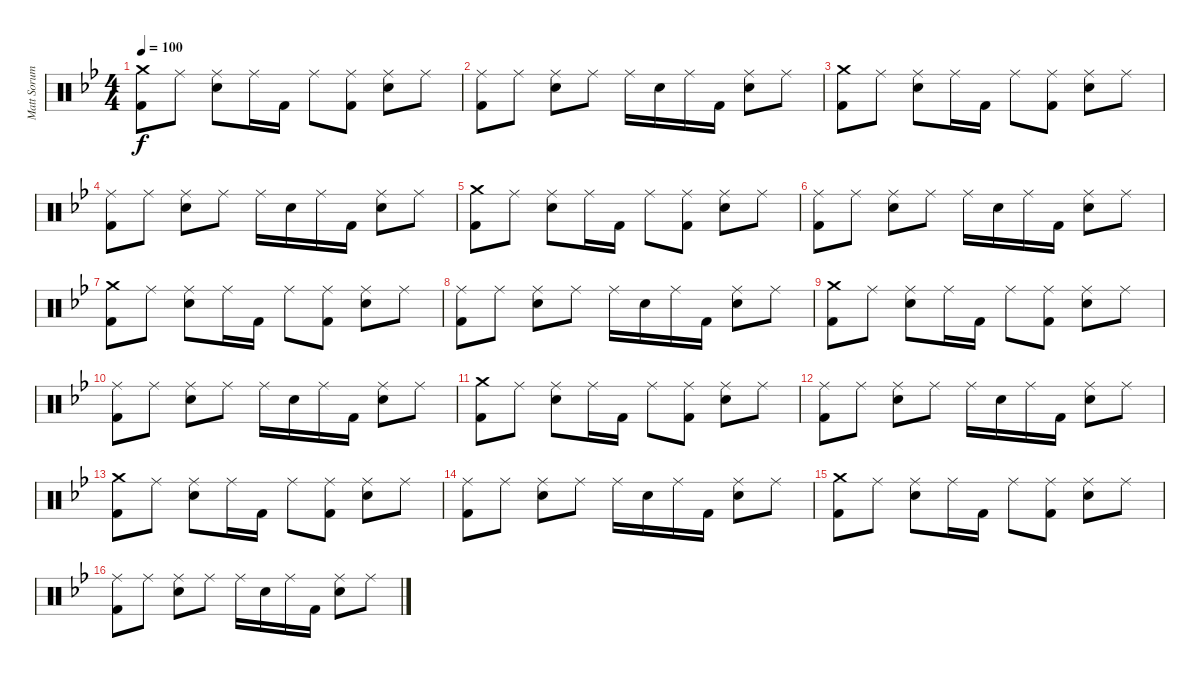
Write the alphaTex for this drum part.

\track ("Matt Sorum" "Matt Sorum") {instrument percussion}
\staff {score}
\articulation defaults
\ts (4 4)
\tempo 100
\clef neutral
\ks bb
("Crash medium (hit)" "Kick (hit) 2").8{dy f} "Ride (middle)".8 ("Ride (middle)" "Electric Snare (hit)").8 "Ride (middle)".16 "Kick (hit) 2".16 "Ride (middle)".8 ("Ride (middle)" "Kick (hit) 2").8 ("Ride (middle)" "Electric Snare (hit)").8 "Ride (middle)".8 |
("Ride (middle)" "Kick (hit) 2").8 "Ride (middle)".8 ("Ride (middle)" "Electric Snare (hit)").8 "Ride (middle)".8 "Ride (middle)".16 "Electric Snare (hit)".16 "Ride (middle)".16 "Kick (hit) 2".16 ("Ride (middle)" "Electric Snare (hit)").8 "Ride (middle)".8 |
("Crash medium (hit)" "Kick (hit) 2").8 "Ride (middle)".8 ("Ride (middle)" "Electric Snare (hit)").8 "Ride (middle)".16 "Kick (hit) 2".16 "Ride (middle)".8 ("Ride (middle)" "Kick (hit) 2").8 ("Ride (middle)" "Electric Snare (hit)").8 "Ride (middle)".8 |
("Ride (middle)" "Kick (hit) 2").8 "Ride (middle)".8 ("Ride (middle)" "Electric Snare (hit)").8 "Ride (middle)".8 "Ride (middle)".16 "Electric Snare (hit)".16 "Ride (middle)".16 "Kick (hit) 2".16 ("Ride (middle)" "Electric Snare (hit)").8 "Ride (middle)".8 |
("Crash medium (hit)" "Kick (hit) 2").8 "Ride (middle)".8 ("Ride (middle)" "Electric Snare (hit)").8 "Ride (middle)".16 "Kick (hit) 2".16 "Ride (middle)".8 ("Ride (middle)" "Kick (hit) 2").8 ("Ride (middle)" "Electric Snare (hit)").8 "Ride (middle)".8 |
("Ride (middle)" "Kick (hit) 2").8 "Ride (middle)".8 ("Ride (middle)" "Electric Snare (hit)").8 "Ride (middle)".8 "Ride (middle)".16 "Electric Snare (hit)".16 "Ride (middle)".16 "Kick (hit) 2".16 ("Ride (middle)" "Electric Snare (hit)").8 "Ride (middle)".8 |
("Crash medium (hit)" "Kick (hit) 2").8 "Ride (middle)".8 ("Ride (middle)" "Electric Snare (hit)").8 "Ride (middle)".16 "Kick (hit) 2".16 "Ride (middle)".8 ("Ride (middle)" "Kick (hit) 2").8 ("Ride (middle)" "Electric Snare (hit)").8 "Ride (middle)".8 |
("Ride (middle)" "Kick (hit) 2").8 "Ride (middle)".8 ("Ride (middle)" "Electric Snare (hit)").8 "Ride (middle)".8 "Ride (middle)".16 "Electric Snare (hit)".16 "Ride (middle)".16 "Kick (hit) 2".16 ("Ride (middle)" "Electric Snare (hit)").8 "Ride (middle)".8 |
("Crash medium (hit)" "Kick (hit) 2").8 "Ride (middle)".8 ("Ride (middle)" "Electric Snare (hit)").8 "Ride (middle)".16 "Kick (hit) 2".16 "Ride (middle)".8 ("Ride (middle)" "Kick (hit) 2").8 ("Ride (middle)" "Electric Snare (hit)").8 "Ride (middle)".8 |
("Ride (middle)" "Kick (hit) 2").8 "Ride (middle)".8 ("Ride (middle)" "Electric Snare (hit)").8 "Ride (middle)".8 "Ride (middle)".16 "Electric Snare (hit)".16 "Ride (middle)".16 "Kick (hit) 2".16 ("Ride (middle)" "Electric Snare (hit)").8 "Ride (middle)".8 |
("Crash medium (hit)" "Kick (hit) 2").8 "Ride (middle)".8 ("Ride (middle)" "Electric Snare (hit)").8 "Ride (middle)".16 "Kick (hit) 2".16 "Ride (middle)".8 ("Ride (middle)" "Kick (hit) 2").8 ("Ride (middle)" "Electric Snare (hit)").8 "Ride (middle)".8 |
("Ride (middle)" "Kick (hit) 2").8 "Ride (middle)".8 ("Ride (middle)" "Electric Snare (hit)").8 "Ride (middle)".8 "Ride (middle)".16 "Electric Snare (hit)".16 "Ride (middle)".16 "Kick (hit) 2".16 ("Ride (middle)" "Electric Snare (hit)").8 "Ride (middle)".8 |
("Crash medium (hit)" "Kick (hit) 2").8 "Ride (middle)".8 ("Ride (middle)" "Electric Snare (hit)").8 "Ride (middle)".16 "Kick (hit) 2".16 "Ride (middle)".8 ("Ride (middle)" "Kick (hit) 2").8 ("Ride (middle)" "Electric Snare (hit)").8 "Ride (middle)".8 |
("Ride (middle)" "Kick (hit) 2").8 "Ride (middle)".8 ("Ride (middle)" "Electric Snare (hit)").8 "Ride (middle)".8 "Ride (middle)".16 "Electric Snare (hit)".16 "Ride (middle)".16 "Kick (hit) 2".16 ("Ride (middle)" "Electric Snare (hit)").8 "Ride (middle)".8 |
("Crash medium (hit)" "Kick (hit) 2").8 "Ride (middle)".8 ("Ride (middle)" "Electric Snare (hit)").8 "Ride (middle)".16 "Kick (hit) 2".16 "Ride (middle)".8 ("Ride (middle)" "Kick (hit) 2").8 ("Ride (middle)" "Electric Snare (hit)").8 "Ride (middle)".8 |
("Ride (middle)" "Kick (hit) 2").8{volume 6} "Ride (middle)".8 ("Ride (middle)" "Electric Snare (hit)").8 "Ride (middle)".8 "Ride (middle)".16 "Electric Snare (hit)".16 "Ride (middle)".16 "Kick (hit) 2".16 ("Ride (middle)" "Electric Snare (hit)").8 "Ride (middle)".8
